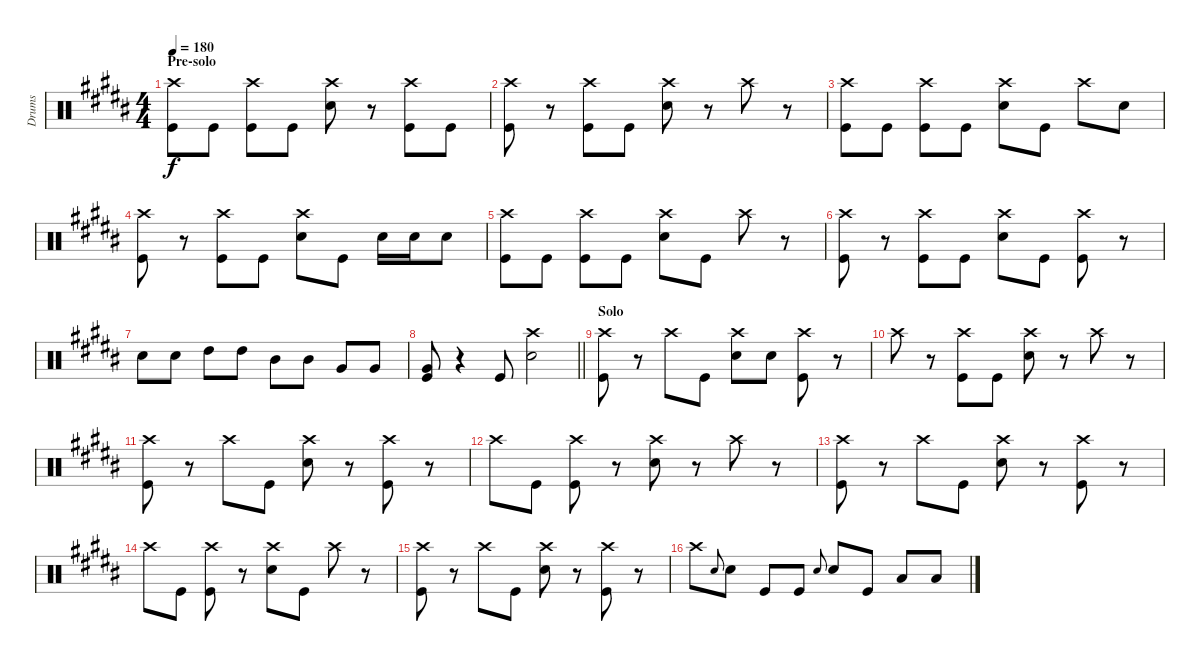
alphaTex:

\track ("Drums" "Drums") {instrument percussion}
\staff {score}
\articulation defaults
\ts (4 4)
\section ("" "Pre-solo")
\tempo 180
\clef neutral
\ks b
("Crash high (hit)" "Kick (hit)").8{dy f} "Kick (hit)".8 ("Crash high (hit)" "Kick (hit)").8 "Kick (hit)".8 ("Crash high (hit)" "Snare (hit) 2").8 r.8 ("Crash high (hit)" "Kick (hit)").8 "Kick (hit)".8 |
("Crash high (hit)" "Kick (hit)").8 r.8 ("Crash high (hit)" "Kick (hit)").8 "Kick (hit)".8 ("Crash high (hit)" "Snare (hit) 2").8 r.8 "Crash high (hit)".8 r.8 |
("Crash high (hit)" "Kick (hit)").8 "Kick (hit)".8 ("Crash high (hit)" "Kick (hit)").8 "Kick (hit)".8 ("Crash high (hit)" "Snare (hit) 2").8 "Kick (hit)".8 "Crash high (hit)".8 "Snare (hit) 2".8 |
("Crash high (hit)" "Kick (hit)").8 r.8 ("Crash high (hit)" "Kick (hit)").8 "Kick (hit)".8 ("Crash high (hit)" "Snare (hit) 2").8 "Kick (hit)".8 "Snare (hit) 2".16 "Snare (hit) 2".16 "Snare (hit) 2".8 |
("Crash high (hit)" "Kick (hit)").8 "Kick (hit)".8 ("Crash high (hit)" "Kick (hit)").8 "Kick (hit)".8 ("Crash high (hit)" "Snare (hit) 2").8 "Kick (hit)".8 "Crash high (hit)".8 r.8 |
("Crash high (hit)" "Kick (hit)").8 r.8 ("Crash high (hit)" "Kick (hit)").8 "Kick (hit)".8 ("Crash high (hit)" "Snare (hit) 2").8 "Kick (hit)".8 ("Crash high (hit)" "Kick (hit)").8 r.8 |
"Snare (hit) 2".8 "Snare (hit) 2".8 "High Tom (hit)".8 "High Tom (hit)".8 "Mid Tom (hit)".8 "Mid Tom (hit)".8 "Very Low Tom (hit)".8 "Very Low Tom (hit)".8 |
\barLineRight lightlight
("Very Low Tom (hit)" "Kick (hit)").8 r.4 "Kick (hit)".8 ("Crash high (hit)" "Snare (hit) 2").2 |
\section ("" "Solo")
("Crash high (hit)" "Kick (hit)").8 r.8 "Crash high (hit)".8 "Kick (hit)".8 ("Crash high (hit)" "Snare (hit) 2").8 "Snare (hit) 2".8 ("Crash high (hit)" "Kick (hit)").8 r.8 |
"Crash high (hit)".8 r.8 ("Crash high (hit)" "Kick (hit)").8 "Kick (hit)".8 ("Crash high (hit)" "Snare (hit) 2").8 r.8 "Crash high (hit)".8 r.8 |
("Crash high (hit)" "Kick (hit)").8 r.8 "Crash high (hit)".8 "Kick (hit)".8 ("Crash high (hit)" "Snare (hit) 2").8 r.8 ("Crash high (hit)" "Kick (hit)").8 r.8 |
"Crash high (hit)".8 "Kick (hit)".8 ("Crash high (hit)" "Kick (hit)").8 r.8 ("Crash high (hit)" "Snare (hit) 2").8 r.8 "Crash high (hit)".8 r.8 |
("Crash high (hit)" "Kick (hit)").8 r.8 "Crash high (hit)".8 "Kick (hit)".8 ("Crash high (hit)" "Snare (hit) 2").8 r.8 ("Crash high (hit)" "Kick (hit)").8 r.8 |
"Crash high (hit)".8 "Kick (hit)".8 ("Crash high (hit)" "Kick (hit)").8 r.8 ("Crash high (hit)" "Snare (hit) 2").8 "Kick (hit)".8 "Crash high (hit)".8 r.8 |
("Crash high (hit)" "Kick (hit)").8 r.8 "Crash high (hit)".8 "Kick (hit)".8 ("Crash high (hit)" "Snare (hit) 2").8 r.8 ("Crash high (hit)" "Kick (hit)").8 r.8 |
"Crash high (hit)".8 "Snare (hit) 2".8{gr onbeat} "Snare (hit) 2".8 "Kick (hit)".8 "Kick (hit)".8 "Snare (hit) 2".8{gr onbeat} "Snare (hit) 2".8 "Kick (hit)".8 "Low Floor Tom (hit)".8 "Low Floor Tom (hit)".8
